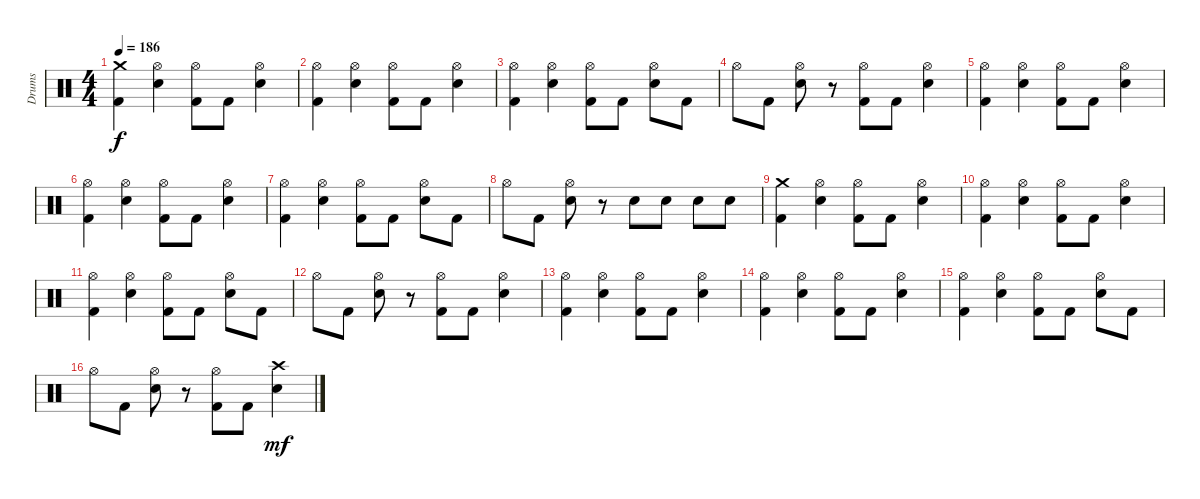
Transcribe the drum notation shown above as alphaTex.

\track ("Drums" "Drums") {instrument percussion}
\staff
\articulation defaults
\ts (4 4)
\tempo 186
\clef neutral
\ks c
("Crash medium (hit)" "Kick (hit) 2").4{dy f} ("Hi-Hat (open)" "Electric Snare (hit)").4 ("Hi-Hat (open)" "Kick (hit) 2").8 "Kick (hit) 2".8 ("Hi-Hat (open)" "Electric Snare (hit)").4 |
("Hi-Hat (open)" "Kick (hit) 2").4 ("Hi-Hat (open)" "Electric Snare (hit)").4 ("Hi-Hat (open)" "Kick (hit) 2").8 "Kick (hit) 2".8 ("Hi-Hat (open)" "Electric Snare (hit)").4 |
("Hi-Hat (open)" "Kick (hit) 2").4 ("Hi-Hat (open)" "Electric Snare (hit)").4 ("Hi-Hat (open)" "Kick (hit) 2").8 "Kick (hit) 2".8 ("Hi-Hat (open)" "Electric Snare (hit)").8 "Kick (hit) 2".8 |
"Hi-Hat (open)".8 "Kick (hit) 2".8 ("Hi-Hat (open)" "Electric Snare (hit)").8 r.8 ("Hi-Hat (open)" "Kick (hit) 2").8 "Kick (hit) 2".8 ("Hi-Hat (open)" "Electric Snare (hit)").4 |
("Hi-Hat (open)" "Kick (hit) 2").4 ("Hi-Hat (open)" "Electric Snare (hit)").4 ("Hi-Hat (open)" "Kick (hit) 2").8 "Kick (hit) 2".8 ("Hi-Hat (open)" "Electric Snare (hit)").4 |
("Hi-Hat (open)" "Kick (hit) 2").4 ("Hi-Hat (open)" "Electric Snare (hit)").4 ("Hi-Hat (open)" "Kick (hit) 2").8 "Kick (hit) 2".8 ("Hi-Hat (open)" "Electric Snare (hit)").4 |
("Hi-Hat (open)" "Kick (hit) 2").4 ("Hi-Hat (open)" "Electric Snare (hit)").4 ("Hi-Hat (open)" "Kick (hit) 2").8 "Kick (hit) 2".8 ("Hi-Hat (open)" "Electric Snare (hit)").8 "Kick (hit) 2".8 |
"Hi-Hat (open)".8 "Kick (hit) 2".8 ("Hi-Hat (open)" "Electric Snare (hit)").8 r.8 "Electric Snare (hit)".8 "Electric Snare (hit)".8 "Electric Snare (hit)".8 "Electric Snare (hit)".8 |
("Crash medium (hit)" "Kick (hit) 2").4 ("Hi-Hat (open)" "Electric Snare (hit)").4 ("Hi-Hat (open)" "Kick (hit) 2").8 "Kick (hit) 2".8 ("Hi-Hat (open)" "Electric Snare (hit)").4 |
("Hi-Hat (open)" "Kick (hit) 2").4 ("Hi-Hat (open)" "Electric Snare (hit)").4 ("Hi-Hat (open)" "Kick (hit) 2").8 "Kick (hit) 2".8 ("Hi-Hat (open)" "Electric Snare (hit)").4 |
("Hi-Hat (open)" "Kick (hit) 2").4 ("Hi-Hat (open)" "Electric Snare (hit)").4 ("Hi-Hat (open)" "Kick (hit) 2").8 "Kick (hit) 2".8 ("Hi-Hat (open)" "Electric Snare (hit)").8 "Kick (hit) 2".8 |
"Hi-Hat (open)".8 "Kick (hit) 2".8 ("Hi-Hat (open)" "Electric Snare (hit)").8 r.8 ("Hi-Hat (open)" "Kick (hit) 2").8 "Kick (hit) 2".8 ("Hi-Hat (open)" "Electric Snare (hit)").4 |
("Hi-Hat (open)" "Kick (hit) 2").4 ("Hi-Hat (open)" "Electric Snare (hit)").4 ("Hi-Hat (open)" "Kick (hit) 2").8 "Kick (hit) 2".8 ("Hi-Hat (open)" "Electric Snare (hit)").4 |
("Hi-Hat (open)" "Kick (hit) 2").4 ("Hi-Hat (open)" "Electric Snare (hit)").4 ("Hi-Hat (open)" "Kick (hit) 2").8 "Kick (hit) 2".8 ("Hi-Hat (open)" "Electric Snare (hit)").4 |
("Hi-Hat (open)" "Kick (hit) 2").4 ("Hi-Hat (open)" "Electric Snare (hit)").4 ("Hi-Hat (open)" "Kick (hit) 2").8 "Kick (hit) 2".8 ("Hi-Hat (open)" "Electric Snare (hit)").8 "Kick (hit) 2".8 |
"Hi-Hat (open)".8 "Kick (hit) 2".8 ("Hi-Hat (open)" "Electric Snare (hit)").8 r.8 ("Hi-Hat (open)" "Kick (hit) 2").8 "Kick (hit) 2".8 ("Crash high (hit)" "Electric Snare (hit)").4{dy mf}
